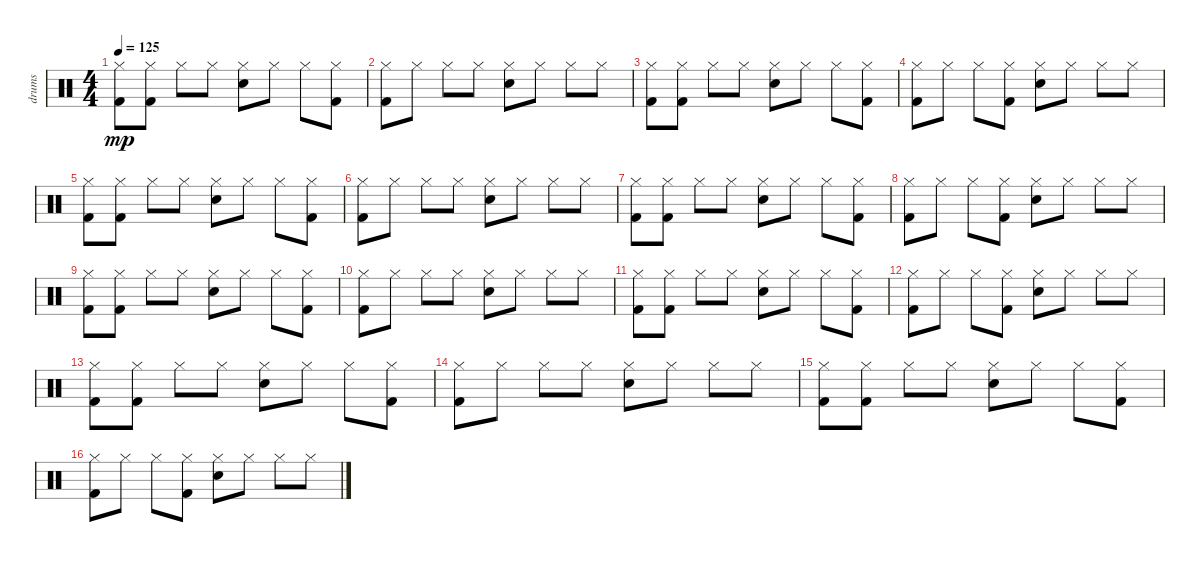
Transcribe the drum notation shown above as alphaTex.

\track ("drums" "drums") {instrument percussion}
\staff {score}
\articulation defaults
\ts (4 4)
\tempo 125
\clef neutral
\ks c
("Hi-Hat (closed)" "Kick (hit) 2").8{dy mp} ("Hi-Hat (closed)" "Kick (hit) 2").8 "Hi-Hat (closed)".8 "Hi-Hat (closed)".8 ("Hi-Hat (closed)" "Snare (hit) 2").8 "Hi-Hat (closed)".8 "Hi-Hat (closed)".8 ("Hi-Hat (closed)" "Kick (hit) 2").8 |
("Hi-Hat (closed)" "Kick (hit) 2").8 "Hi-Hat (closed)".8 "Hi-Hat (closed)".8 "Hi-Hat (closed)".8 ("Hi-Hat (closed)" "Snare (hit) 2").8 "Hi-Hat (closed)".8 "Hi-Hat (closed)".8 "Hi-Hat (closed)".8 |
("Hi-Hat (closed)" "Kick (hit) 2").8 ("Hi-Hat (closed)" "Kick (hit) 2").8 "Hi-Hat (closed)".8 "Hi-Hat (closed)".8 ("Hi-Hat (closed)" "Snare (hit) 2").8 "Hi-Hat (closed)".8 "Hi-Hat (closed)".8 ("Hi-Hat (closed)" "Kick (hit) 2").8 |
("Hi-Hat (closed)" "Kick (hit) 2").8 "Hi-Hat (closed)".8 "Hi-Hat (closed)".8 ("Hi-Hat (closed)" "Kick (hit) 2").8 ("Hi-Hat (closed)" "Snare (hit) 2").8 "Hi-Hat (closed)".8 "Hi-Hat (closed)".8 "Hi-Hat (closed)".8 |
("Hi-Hat (closed)" "Kick (hit) 2").8 ("Hi-Hat (closed)" "Kick (hit) 2").8 "Hi-Hat (closed)".8 "Hi-Hat (closed)".8 ("Hi-Hat (closed)" "Snare (hit) 2").8 "Hi-Hat (closed)".8 "Hi-Hat (closed)".8 ("Hi-Hat (closed)" "Kick (hit) 2").8 |
("Hi-Hat (closed)" "Kick (hit) 2").8 "Hi-Hat (closed)".8 "Hi-Hat (closed)".8 "Hi-Hat (closed)".8 ("Hi-Hat (closed)" "Snare (hit) 2").8 "Hi-Hat (closed)".8 "Hi-Hat (closed)".8 "Hi-Hat (closed)".8 |
("Hi-Hat (closed)" "Kick (hit) 2").8 ("Hi-Hat (closed)" "Kick (hit) 2").8 "Hi-Hat (closed)".8 "Hi-Hat (closed)".8 ("Hi-Hat (closed)" "Snare (hit) 2").8 "Hi-Hat (closed)".8 "Hi-Hat (closed)".8 ("Hi-Hat (closed)" "Kick (hit) 2").8 |
("Hi-Hat (closed)" "Kick (hit) 2").8 "Hi-Hat (closed)".8 "Hi-Hat (closed)".8 ("Hi-Hat (closed)" "Kick (hit) 2").8 ("Hi-Hat (closed)" "Snare (hit) 2").8 "Hi-Hat (closed)".8 "Hi-Hat (closed)".8 "Hi-Hat (closed)".8 |
("Hi-Hat (closed)" "Kick (hit) 2").8 ("Hi-Hat (closed)" "Kick (hit) 2").8 "Hi-Hat (closed)".8 "Hi-Hat (closed)".8 ("Hi-Hat (closed)" "Snare (hit) 2").8 "Hi-Hat (closed)".8 "Hi-Hat (closed)".8 ("Hi-Hat (closed)" "Kick (hit) 2").8 |
("Hi-Hat (closed)" "Kick (hit) 2").8 "Hi-Hat (closed)".8 "Hi-Hat (closed)".8 "Hi-Hat (closed)".8 ("Hi-Hat (closed)" "Snare (hit) 2").8 "Hi-Hat (closed)".8 "Hi-Hat (closed)".8 "Hi-Hat (closed)".8 |
("Hi-Hat (closed)" "Kick (hit) 2").8 ("Hi-Hat (closed)" "Kick (hit) 2").8 "Hi-Hat (closed)".8 "Hi-Hat (closed)".8 ("Hi-Hat (closed)" "Snare (hit) 2").8 "Hi-Hat (closed)".8 "Hi-Hat (closed)".8 ("Hi-Hat (closed)" "Kick (hit) 2").8 |
("Hi-Hat (closed)" "Kick (hit) 2").8 "Hi-Hat (closed)".8 "Hi-Hat (closed)".8 ("Hi-Hat (closed)" "Kick (hit) 2").8 ("Hi-Hat (closed)" "Snare (hit) 2").8 "Hi-Hat (closed)".8 "Hi-Hat (closed)".8 "Hi-Hat (closed)".8 |
("Hi-Hat (closed)" "Kick (hit) 2").8 ("Hi-Hat (closed)" "Kick (hit) 2").8 "Hi-Hat (closed)".8 "Hi-Hat (closed)".8 ("Hi-Hat (closed)" "Snare (hit) 2").8 "Hi-Hat (closed)".8 "Hi-Hat (closed)".8 ("Hi-Hat (closed)" "Kick (hit) 2").8 |
("Hi-Hat (closed)" "Kick (hit) 2").8 "Hi-Hat (closed)".8 "Hi-Hat (closed)".8 "Hi-Hat (closed)".8 ("Hi-Hat (closed)" "Snare (hit) 2").8 "Hi-Hat (closed)".8 "Hi-Hat (closed)".8 "Hi-Hat (closed)".8 |
("Hi-Hat (closed)" "Kick (hit) 2").8 ("Hi-Hat (closed)" "Kick (hit) 2").8 "Hi-Hat (closed)".8 "Hi-Hat (closed)".8 ("Hi-Hat (closed)" "Snare (hit) 2").8 "Hi-Hat (closed)".8 "Hi-Hat (closed)".8 ("Hi-Hat (closed)" "Kick (hit) 2").8 |
("Hi-Hat (closed)" "Kick (hit) 2").8 "Hi-Hat (closed)".8 "Hi-Hat (closed)".8 ("Hi-Hat (closed)" "Kick (hit) 2").8 ("Hi-Hat (closed)" "Snare (hit) 2").8 "Hi-Hat (closed)".8 "Hi-Hat (closed)".8 "Hi-Hat (closed)".8
